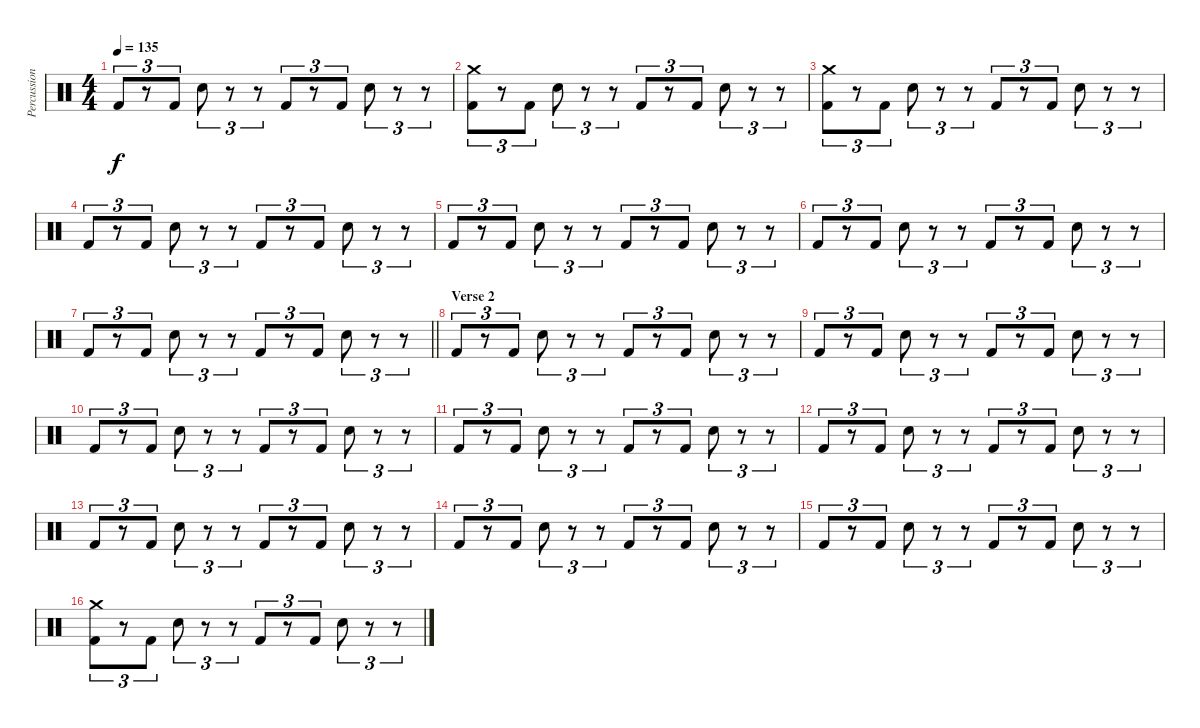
\track ("Percussion" "Percussion") {instrument percussion}
\staff {score}
\articulation defaults
\ts (4 4)
\tempo 135
\clef neutral
\ks c "Kick (hit) 2".8{tu (3 2) dy f}
r.8{tu (3 2)} "Kick (hit) 2".8{tu (3 2)} "Electric Snare (hit)".8{tu (3 2)} r.8{tu (3 2)} r.8{tu (3 2)} "Kick (hit) 2".8{tu (3 2)} r.8{tu (3 2)} "Kick (hit) 2".8{tu (3 2)} "Electric Snare (hit)".8{tu (3 2)} r.8{tu (3 2)} r.8{tu (3 2)} |
("Crash medium (hit)" "Kick (hit) 2").8{tu (3 2)} r.8{tu (3 2)} "Kick (hit) 2".8{tu (3 2)} "Electric Snare (hit)".8{tu (3 2)} r.8{tu (3 2)} r.8{tu (3 2)} "Kick (hit) 2".8{tu (3 2)} r.8{tu (3 2)} "Kick (hit) 2".8{tu (3 2)} "Electric Snare (hit)".8{tu (3 2)} r.8{tu (3 2)} r.8{tu (3 2)} |
("Crash medium (hit)" "Kick (hit) 2").8{tu (3 2)} r.8{tu (3 2)} "Kick (hit) 2".8{tu (3 2)} "Electric Snare (hit)".8{tu (3 2)} r.8{tu (3 2)} r.8{tu (3 2)} "Kick (hit) 2".8{tu (3 2)} r.8{tu (3 2)} "Kick (hit) 2".8{tu (3 2)} "Electric Snare (hit)".8{tu (3 2)} r.8{tu (3 2)} r.8{tu (3 2)} |
"Kick (hit) 2".8{tu (3 2)} r.8{tu (3 2)} "Kick (hit) 2".8{tu (3 2)} "Electric Snare (hit)".8{tu (3 2)} r.8{tu (3 2)} r.8{tu (3 2)} "Kick (hit) 2".8{tu (3 2)} r.8{tu (3 2)} "Kick (hit) 2".8{tu (3 2)} "Electric Snare (hit)".8{tu (3 2)} r.8{tu (3 2)} r.8{tu (3 2)} |
"Kick (hit) 2".8{tu (3 2)} r.8{tu (3 2)} "Kick (hit) 2".8{tu (3 2)} "Electric Snare (hit)".8{tu (3 2)} r.8{tu (3 2)} r.8{tu (3 2)} "Kick (hit) 2".8{tu (3 2)} r.8{tu (3 2)} "Kick (hit) 2".8{tu (3 2)} "Electric Snare (hit)".8{tu (3 2)} r.8{tu (3 2)} r.8{tu (3 2)} |
"Kick (hit) 2".8{tu (3 2)} r.8{tu (3 2)} "Kick (hit) 2".8{tu (3 2)} "Electric Snare (hit)".8{tu (3 2)} r.8{tu (3 2)} r.8{tu (3 2)} "Kick (hit) 2".8{tu (3 2)} r.8{tu (3 2)} "Kick (hit) 2".8{tu (3 2)} "Electric Snare (hit)".8{tu (3 2)} r.8{tu (3 2)} r.8{tu (3 2)} |
\barLineRight lightlight "Kick (hit) 2".8{tu (3 2)}
r.8{tu (3 2)} "Kick (hit) 2".8{tu (3 2)} "Electric Snare (hit)".8{tu (3 2)} r.8{tu (3 2)} r.8{tu (3 2)} "Kick (hit) 2".8{tu (3 2)} r.8{tu (3 2)} "Kick (hit) 2".8{tu (3 2)} "Electric Snare (hit)".8{tu (3 2)} r.8{tu (3 2)} r.8{tu (3 2)} |
\section ("" "Verse 2")
"Kick (hit) 2".8{tu (3 2)} r.8{tu (3 2)} "Kick (hit) 2".8{tu (3 2)} "Electric Snare (hit)".8{tu (3 2)} r.8{tu (3 2)} r.8{tu (3 2)} "Kick (hit) 2".8{tu (3 2)} r.8{tu (3 2)} "Kick (hit) 2".8{tu (3 2)} "Electric Snare (hit)".8{tu (3 2)} r.8{tu (3 2)} r.8{tu (3 2)} |
"Kick (hit) 2".8{tu (3 2)} r.8{tu (3 2)} "Kick (hit) 2".8{tu (3 2)} "Electric Snare (hit)".8{tu (3 2)} r.8{tu (3 2)} r.8{tu (3 2)} "Kick (hit) 2".8{tu (3 2)} r.8{tu (3 2)} "Kick (hit) 2".8{tu (3 2)} "Electric Snare (hit)".8{tu (3 2)} r.8{tu (3 2)} r.8{tu (3 2)} |
"Kick (hit) 2".8{tu (3 2)} r.8{tu (3 2)} "Kick (hit) 2".8{tu (3 2)} "Electric Snare (hit)".8{tu (3 2)} r.8{tu (3 2)} r.8{tu (3 2)} "Kick (hit) 2".8{tu (3 2)} r.8{tu (3 2)} "Kick (hit) 2".8{tu (3 2)} "Electric Snare (hit)".8{tu (3 2)} r.8{tu (3 2)} r.8{tu (3 2)} |
"Kick (hit) 2".8{tu (3 2)} r.8{tu (3 2)} "Kick (hit) 2".8{tu (3 2)} "Electric Snare (hit)".8{tu (3 2)} r.8{tu (3 2)} r.8{tu (3 2)} "Kick (hit) 2".8{tu (3 2)} r.8{tu (3 2)} "Kick (hit) 2".8{tu (3 2)} "Electric Snare (hit)".8{tu (3 2)} r.8{tu (3 2)} r.8{tu (3 2)} |
"Kick (hit) 2".8{tu (3 2)} r.8{tu (3 2)} "Kick (hit) 2".8{tu (3 2)} "Electric Snare (hit)".8{tu (3 2)} r.8{tu (3 2)} r.8{tu (3 2)} "Kick (hit) 2".8{tu (3 2)} r.8{tu (3 2)} "Kick (hit) 2".8{tu (3 2)} "Electric Snare (hit)".8{tu (3 2)} r.8{tu (3 2)} r.8{tu (3 2)} |
"Kick (hit) 2".8{tu (3 2)} r.8{tu (3 2)} "Kick (hit) 2".8{tu (3 2)} "Electric Snare (hit)".8{tu (3 2)} r.8{tu (3 2)} r.8{tu (3 2)} "Kick (hit) 2".8{tu (3 2)} r.8{tu (3 2)} "Kick (hit) 2".8{tu (3 2)} "Electric Snare (hit)".8{tu (3 2)} r.8{tu (3 2)} r.8{tu (3 2)} |
"Kick (hit) 2".8{tu (3 2)} r.8{tu (3 2)} "Kick (hit) 2".8{tu (3 2)} "Electric Snare (hit)".8{tu (3 2)} r.8{tu (3 2)} r.8{tu (3 2)} "Kick (hit) 2".8{tu (3 2)} r.8{tu (3 2)} "Kick (hit) 2".8{tu (3 2)} "Electric Snare (hit)".8{tu (3 2)} r.8{tu (3 2)} r.8{tu (3 2)} |
"Kick (hit) 2".8{tu (3 2)} r.8{tu (3 2)} "Kick (hit) 2".8{tu (3 2)} "Electric Snare (hit)".8{tu (3 2)} r.8{tu (3 2)} r.8{tu (3 2)} "Kick (hit) 2".8{tu (3 2)} r.8{tu (3 2)} "Kick (hit) 2".8{tu (3 2)} "Electric Snare (hit)".8{tu (3 2)} r.8{tu (3 2)} r.8{tu (3 2)} |
("Crash medium (hit)" "Kick (hit) 2").8{tu (3 2)} r.8{tu (3 2)} "Kick (hit) 2".8{tu (3 2)} "Electric Snare (hit)".8{tu (3 2)} r.8{tu (3 2)} r.8{tu (3 2)} "Kick (hit) 2".8{tu (3 2)} r.8{tu (3 2)} "Kick (hit) 2".8{tu (3 2)} "Electric Snare (hit)".8{tu (3 2)} r.8{tu (3 2)} r.8{tu (3 2)}
